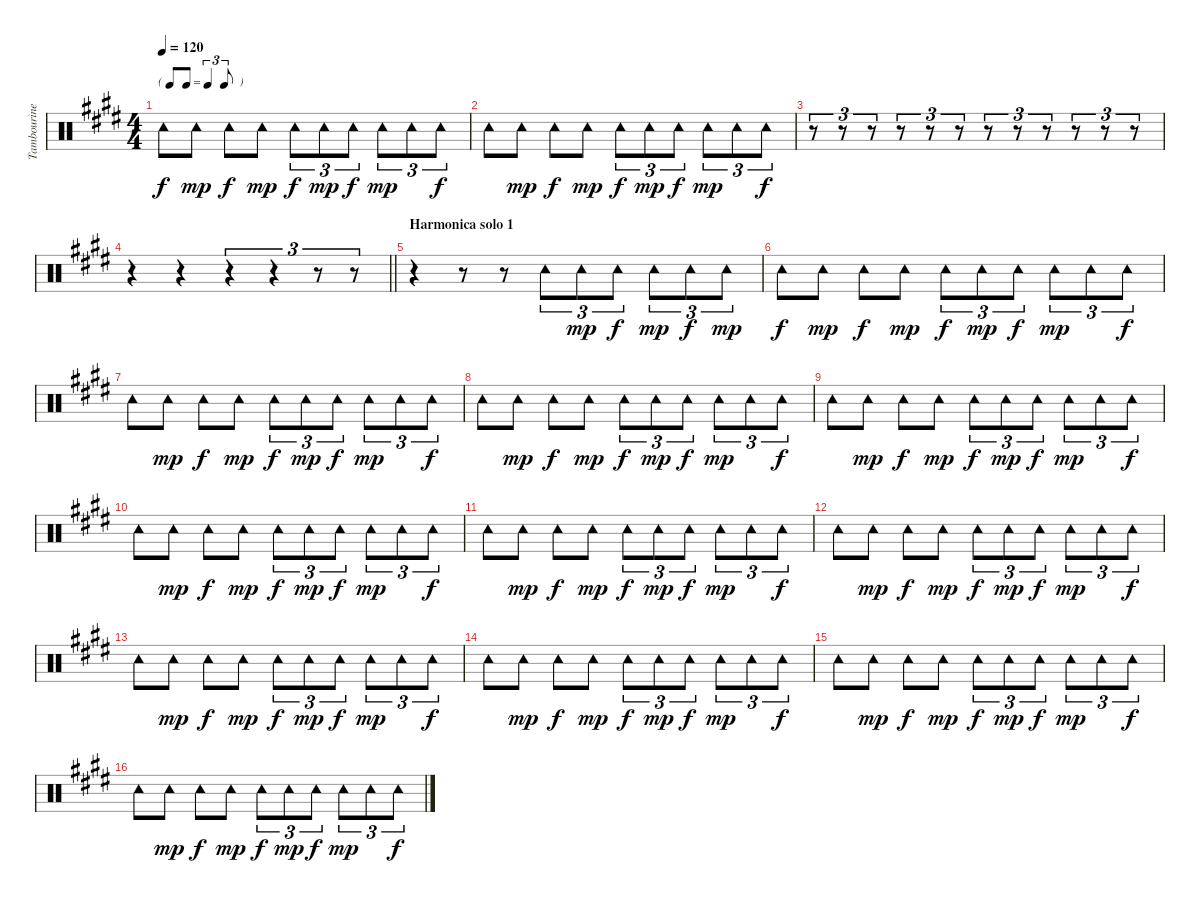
\track ("Tambourine" "Tambourine") {instrument percussion}
\staff {score}
\articulation defaults
\ts (4 4)
\tf triplet8th
\tempo 120
\clef neutral
\ks e "Tambourine (hit)".8{dy f} "Tambourine (hit)".8{dy mp} "Tambourine (hit)".8{dy f} "Tambourine (hit)".8{dy mp} "Tambourine (hit)".8{tu (3 2) dy f} "Tambourine (hit)".8{tu (3 2) dy mp} "Tambourine (hit)".8{tu (3 2) dy f} "Tambourine (hit)".8{tu (3 2) dy mp} "Tambourine (hit)".8{tu (3 2)} "Tambourine (hit)".8{tu (3 2) dy f}
|
"Tambourine (hit)".8 "Tambourine (hit)".8{dy mp} "Tambourine (hit)".8{dy f} "Tambourine (hit)".8{dy mp} "Tambourine (hit)".8{tu (3 2) dy f} "Tambourine (hit)".8{tu (3 2) dy mp} "Tambourine (hit)".8{tu (3 2) dy f} "Tambourine (hit)".8{tu (3 2) dy mp} "Tambourine (hit)".8{tu (3 2)} "Tambourine (hit)".8{tu (3 2) dy f} |
r.8{tu (3 2)} r.8{tu (3 2)} r.8{tu (3 2)} r.8{tu (3 2)} r.8{tu (3 2)} r.8{tu (3 2)} r.8{tu (3 2)} r.8{tu (3 2)} r.8{tu (3 2)} r.8{tu (3 2)} r.8{tu (3 2)} r.8{tu (3 2)} |
\barLineRight lightlight
r.4 r.4 r.4{tu (3 2)} r.4{tu (3 2)} r.8{tu (3 2)} r.8{tu (3 2)} |
\section ("" "Harmonica solo 1")
r.4 r.8 r.8 "Tambourine (hit)".8{tu (3 2)} "Tambourine (hit)".8{tu (3 2) dy mp} "Tambourine (hit)".8{tu (3 2) dy f} "Tambourine (hit)".8{tu (3 2) dy mp} "Tambourine (hit)".8{tu (3 2) dy f} "Tambourine (hit)".8{tu (3 2) dy mp} |
"Tambourine (hit)".8{dy f} "Tambourine (hit)".8{dy mp} "Tambourine (hit)".8{dy f} "Tambourine (hit)".8{dy mp} "Tambourine (hit)".8{tu (3 2) dy f} "Tambourine (hit)".8{tu (3 2) dy mp} "Tambourine (hit)".8{tu (3 2) dy f} "Tambourine (hit)".8{tu (3 2) dy mp} "Tambourine (hit)".8{tu (3 2)} "Tambourine (hit)".8{tu (3 2) dy f} |
"Tambourine (hit)".8 "Tambourine (hit)".8{dy mp} "Tambourine (hit)".8{dy f} "Tambourine (hit)".8{dy mp} "Tambourine (hit)".8{tu (3 2) dy f} "Tambourine (hit)".8{tu (3 2) dy mp} "Tambourine (hit)".8{tu (3 2) dy f} "Tambourine (hit)".8{tu (3 2) dy mp} "Tambourine (hit)".8{tu (3 2)} "Tambourine (hit)".8{tu (3 2) dy f} |
"Tambourine (hit)".8 "Tambourine (hit)".8{dy mp} "Tambourine (hit)".8{dy f} "Tambourine (hit)".8{dy mp} "Tambourine (hit)".8{tu (3 2) dy f} "Tambourine (hit)".8{tu (3 2) dy mp} "Tambourine (hit)".8{tu (3 2) dy f} "Tambourine (hit)".8{tu (3 2) dy mp} "Tambourine (hit)".8{tu (3 2)} "Tambourine (hit)".8{tu (3 2) dy f} |
"Tambourine (hit)".8 "Tambourine (hit)".8{dy mp} "Tambourine (hit)".8{dy f} "Tambourine (hit)".8{dy mp} "Tambourine (hit)".8{tu (3 2) dy f} "Tambourine (hit)".8{tu (3 2) dy mp} "Tambourine (hit)".8{tu (3 2) dy f} "Tambourine (hit)".8{tu (3 2) dy mp} "Tambourine (hit)".8{tu (3 2)} "Tambourine (hit)".8{tu (3 2) dy f} |
"Tambourine (hit)".8 "Tambourine (hit)".8{dy mp} "Tambourine (hit)".8{dy f} "Tambourine (hit)".8{dy mp} "Tambourine (hit)".8{tu (3 2) dy f} "Tambourine (hit)".8{tu (3 2) dy mp} "Tambourine (hit)".8{tu (3 2) dy f} "Tambourine (hit)".8{tu (3 2) dy mp} "Tambourine (hit)".8{tu (3 2)} "Tambourine (hit)".8{tu (3 2) dy f} |
"Tambourine (hit)".8 "Tambourine (hit)".8{dy mp} "Tambourine (hit)".8{dy f} "Tambourine (hit)".8{dy mp} "Tambourine (hit)".8{tu (3 2) dy f} "Tambourine (hit)".8{tu (3 2) dy mp} "Tambourine (hit)".8{tu (3 2) dy f} "Tambourine (hit)".8{tu (3 2) dy mp} "Tambourine (hit)".8{tu (3 2)} "Tambourine (hit)".8{tu (3 2) dy f} |
"Tambourine (hit)".8 "Tambourine (hit)".8{dy mp} "Tambourine (hit)".8{dy f} "Tambourine (hit)".8{dy mp} "Tambourine (hit)".8{tu (3 2) dy f} "Tambourine (hit)".8{tu (3 2) dy mp} "Tambourine (hit)".8{tu (3 2) dy f} "Tambourine (hit)".8{tu (3 2) dy mp} "Tambourine (hit)".8{tu (3 2)} "Tambourine (hit)".8{tu (3 2) dy f} |
"Tambourine (hit)".8 "Tambourine (hit)".8{dy mp} "Tambourine (hit)".8{dy f} "Tambourine (hit)".8{dy mp} "Tambourine (hit)".8{tu (3 2) dy f} "Tambourine (hit)".8{tu (3 2) dy mp} "Tambourine (hit)".8{tu (3 2) dy f} "Tambourine (hit)".8{tu (3 2) dy mp} "Tambourine (hit)".8{tu (3 2)} "Tambourine (hit)".8{tu (3 2) dy f} |
"Tambourine (hit)".8 "Tambourine (hit)".8{dy mp} "Tambourine (hit)".8{dy f} "Tambourine (hit)".8{dy mp} "Tambourine (hit)".8{tu (3 2) dy f} "Tambourine (hit)".8{tu (3 2) dy mp} "Tambourine (hit)".8{tu (3 2) dy f} "Tambourine (hit)".8{tu (3 2) dy mp} "Tambourine (hit)".8{tu (3 2)} "Tambourine (hit)".8{tu (3 2) dy f} |
"Tambourine (hit)".8 "Tambourine (hit)".8{dy mp} "Tambourine (hit)".8{dy f} "Tambourine (hit)".8{dy mp} "Tambourine (hit)".8{tu (3 2) dy f} "Tambourine (hit)".8{tu (3 2) dy mp} "Tambourine (hit)".8{tu (3 2) dy f} "Tambourine (hit)".8{tu (3 2) dy mp} "Tambourine (hit)".8{tu (3 2)} "Tambourine (hit)".8{tu (3 2) dy f} |
"Tambourine (hit)".8 "Tambourine (hit)".8{dy mp} "Tambourine (hit)".8{dy f} "Tambourine (hit)".8{dy mp} "Tambourine (hit)".8{tu (3 2) dy f} "Tambourine (hit)".8{tu (3 2) dy mp} "Tambourine (hit)".8{tu (3 2) dy f} "Tambourine (hit)".8{tu (3 2) dy mp} "Tambourine (hit)".8{tu (3 2)} "Tambourine (hit)".8{tu (3 2) dy f}
